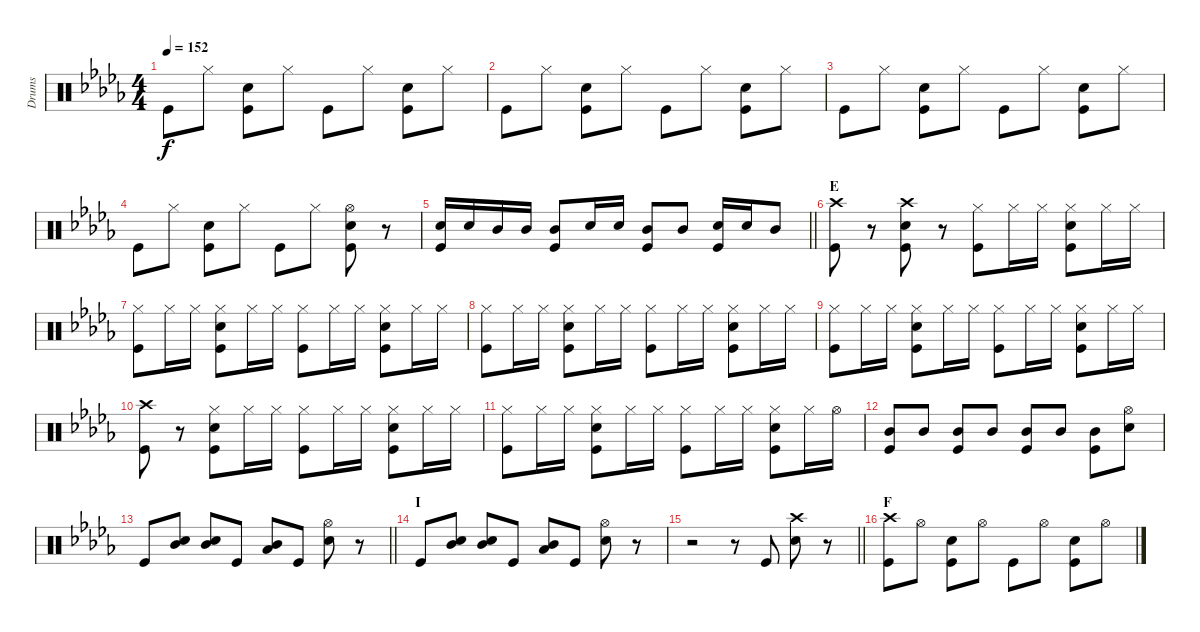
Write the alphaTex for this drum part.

\track ("Drums" "Drums") {instrument percussion}
\staff {score}
\articulation defaults
\ts (4 4)
\tempo 152
\clef neutral
\ks db "Kick (hit)".8{dy f} "Hi-Hat (closed)".8
("Snare (hit) 2" "Kick (hit)").8 "Hi-Hat (closed)".8 "Kick (hit)".8 "Hi-Hat (closed)".8 ("Snare (hit) 2" "Kick (hit)").8 "Hi-Hat (closed)".8 |
"Kick (hit)".8 "Hi-Hat (closed)".8 ("Snare (hit) 2" "Kick (hit)").8 "Hi-Hat (closed)".8 "Kick (hit)".8 "Hi-Hat (closed)".8 ("Snare (hit) 2" "Kick (hit)").8 "Hi-Hat (closed)".8 |
"Kick (hit)".8 "Hi-Hat (closed)".8 ("Snare (hit) 2" "Kick (hit)").8 "Hi-Hat (closed)".8 "Kick (hit)".8 "Hi-Hat (closed)".8 ("Snare (hit) 2" "Kick (hit)").8 "Hi-Hat (closed)".8 |
"Kick (hit)".8 "Hi-Hat (closed)".8 ("Snare (hit) 2" "Kick (hit)").8 "Hi-Hat (closed)".8 "Kick (hit)".8 "Hi-Hat (closed)".8 ("Hi-Hat (open)" "Snare (hit) 2" "Kick (hit)").8 r.8 |
\barLineRight lightlight
("Snare (hit) 2" "Kick (hit)").16 "Snare (hit) 2".16 "Mid Tom (hit)".16 "Mid Tom (hit)".16 ("Mid Tom (hit)" "Kick (hit)").8 "Snare (hit) 2".16 "Snare (hit) 2".16 ("Mid Tom (hit)" "Kick (hit)").8 "Mid Tom (hit)".8 ("Snare (hit) 2" "Kick (hit)").16 "Snare (hit) 2".16 "Mid Tom (hit)".8 |
\section ("" "E")
("Crash high (hit)" "Kick (hit)").8 r.8 ("Crash high (hit)" "Snare (hit) 2" "Kick (hit)").8 r.8 ("Hi-Hat (closed)" "Kick (hit)").8 "Hi-Hat (closed)".16 "Hi-Hat (closed)".16 ("Hi-Hat (closed)" "Snare (hit) 2" "Kick (hit)").8 "Hi-Hat (closed)".16 "Hi-Hat (closed)".16 |
("Hi-Hat (closed)" "Kick (hit)").8 "Hi-Hat (closed)".16 "Hi-Hat (closed)".16 ("Hi-Hat (closed)" "Snare (hit) 2" "Kick (hit)").8 "Hi-Hat (closed)".16 "Hi-Hat (closed)".16 ("Hi-Hat (closed)" "Kick (hit)").8 "Hi-Hat (closed)".16 "Hi-Hat (closed)".16 ("Hi-Hat (closed)" "Snare (hit) 2" "Kick (hit)").8 "Hi-Hat (closed)".16 "Hi-Hat (closed)".16 |
("Hi-Hat (closed)" "Kick (hit)").8 "Hi-Hat (closed)".16 "Hi-Hat (closed)".16 ("Hi-Hat (closed)" "Snare (hit) 2" "Kick (hit)").8 "Hi-Hat (closed)".16 "Hi-Hat (closed)".16 ("Hi-Hat (closed)" "Kick (hit)").8 "Hi-Hat (closed)".16 "Hi-Hat (closed)".16 ("Hi-Hat (closed)" "Snare (hit) 2" "Kick (hit)").8 "Hi-Hat (closed)".16 "Hi-Hat (closed)".16 |
("Hi-Hat (closed)" "Kick (hit)").8 "Hi-Hat (closed)".16 "Hi-Hat (closed)".16 ("Hi-Hat (closed)" "Snare (hit) 2" "Kick (hit)").8 "Hi-Hat (closed)".16 "Hi-Hat (closed)".16 ("Hi-Hat (closed)" "Kick (hit)").8 "Hi-Hat (closed)".16 "Hi-Hat (closed)".16 ("Hi-Hat (closed)" "Snare (hit) 2" "Kick (hit)").8 "Hi-Hat (closed)".16 "Hi-Hat (closed)".16 |
("Crash high (hit)" "Kick (hit)").8 r.8 ("Hi-Hat (closed)" "Snare (hit) 2" "Kick (hit)").8 "Hi-Hat (closed)".16 "Hi-Hat (closed)".16 ("Hi-Hat (closed)" "Kick (hit)").8 "Hi-Hat (closed)".16 "Hi-Hat (closed)".16 ("Hi-Hat (closed)" "Snare (hit) 2" "Kick (hit)").8 "Hi-Hat (closed)".16 "Hi-Hat (closed)".16 |
("Hi-Hat (closed)" "Kick (hit)").8 "Hi-Hat (closed)".16 "Hi-Hat (closed)".16 ("Hi-Hat (closed)" "Snare (hit) 2" "Kick (hit)").8 "Hi-Hat (closed)".16 "Hi-Hat (closed)".16 ("Hi-Hat (closed)" "Kick (hit)").8 "Hi-Hat (closed)".16 "Hi-Hat (closed)".16 ("Hi-Hat (closed)" "Snare (hit) 2" "Kick (hit)").8 "Hi-Hat (closed)".16 "Hi-Hat (open)".16 |
("Mid Tom (hit)" "Kick (hit)").8 "Mid Tom (hit)".8 ("Mid Tom (hit)" "Kick (hit)").8 "Mid Tom (hit)".8 ("Mid Tom (hit)" "Kick (hit)").8 "Mid Tom (hit)".8 ("Mid Tom (hit)" "Kick (hit)").8 ("Hi-Hat (open)" "Snare (hit) 2").8 |
\barLineRight lightlight "Kick (hit)".8
("Mid Tom (hit)" "Snare (hit) 2").8 ("Mid Tom (hit)" "Snare (hit) 2").8 "Kick (hit)".8 ("Mid Tom (hit)" "Low Tom (hit)").8 "Kick (hit)".8 ("Hi-Hat (open)" "Snare (hit) 2").8 r.8 |
\section ("" "I")
"Kick (hit)".8 ("Mid Tom (hit)" "Snare (hit) 2").8 ("Mid Tom (hit)" "Snare (hit) 2").8 "Kick (hit)".8 ("Mid Tom (hit)" "Low Tom (hit)").8 "Kick (hit)".8 ("Hi-Hat (open)" "Snare (hit) 2").8 r.8 |
\barLineRight lightlight
r.2 r.8 "Kick (hit)".8 ("Crash high (hit)" "Snare (hit) 2").8 r.8 |
\section ("" "F")
("Crash high (hit)" "Kick (hit)").8 "Hi-Hat (open)".8 ("Snare (hit) 2" "Kick (hit)").8 "Hi-Hat (open)".8 "Kick (hit)".8 "Hi-Hat (open)".8 ("Snare (hit) 2" "Kick (hit)").8 "Hi-Hat (open)".8
